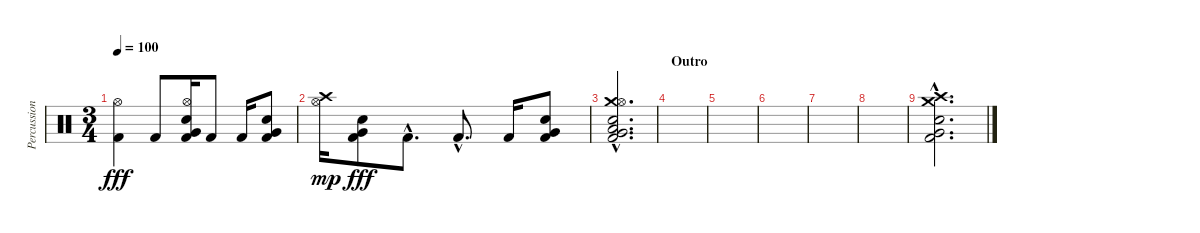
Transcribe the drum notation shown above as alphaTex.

\track ("Percussion" "Percussion") {instrument percussion}
\staff {score}
\articulation defaults
\ts (3 4)
\tempo 100
\clef neutral
\ks c
("Kick (hit) 2" "Hi-Hat (open)").4{dy fff} "Kick (hit) 2".8 ("Snare (hit) 2" "Kick (hit) 2" "Very Low Tom (hit)" "Hi-Hat (open)").16 "Kick (hit) 2".8 "Kick (hit) 2".16 ("Snare (hit) 2" "Kick (hit) 2" "Very Low Tom (hit)").8 |
("Crash high (hit)" "Hi-Hat (open)").16{dy mp} ("Snare (hit) 2" "Kick (hit) 2" "Very Low Tom (hit)").8{dy fff} "Kick (hit) 2"{hac}.8{d} "Kick (hit) 2"{hac}.8{d} "Kick (hit) 2".16 ("Snare (hit) 2" "Kick (hit) 2" "Very Low Tom (hit)").8 |
("Snare (hit) 2"{hac} "Kick (hit) 2"{hac} "Very Low Tom (hit)"{hac} "Crash medium (hit)"{hac} "Hi-Hat (open)"{hac} "Low Floor Tom (hit)"{hac}).2{d} |
\section ("" "Outro")
|
|
|
|
|
("Snare (hit) 2"{hac} "Kick (hit) 2"{hac} "Very Low Tom (hit)"{hac} "Crash medium (hit)"{hac} "Crash high (hit)"{hac}).2{d}
